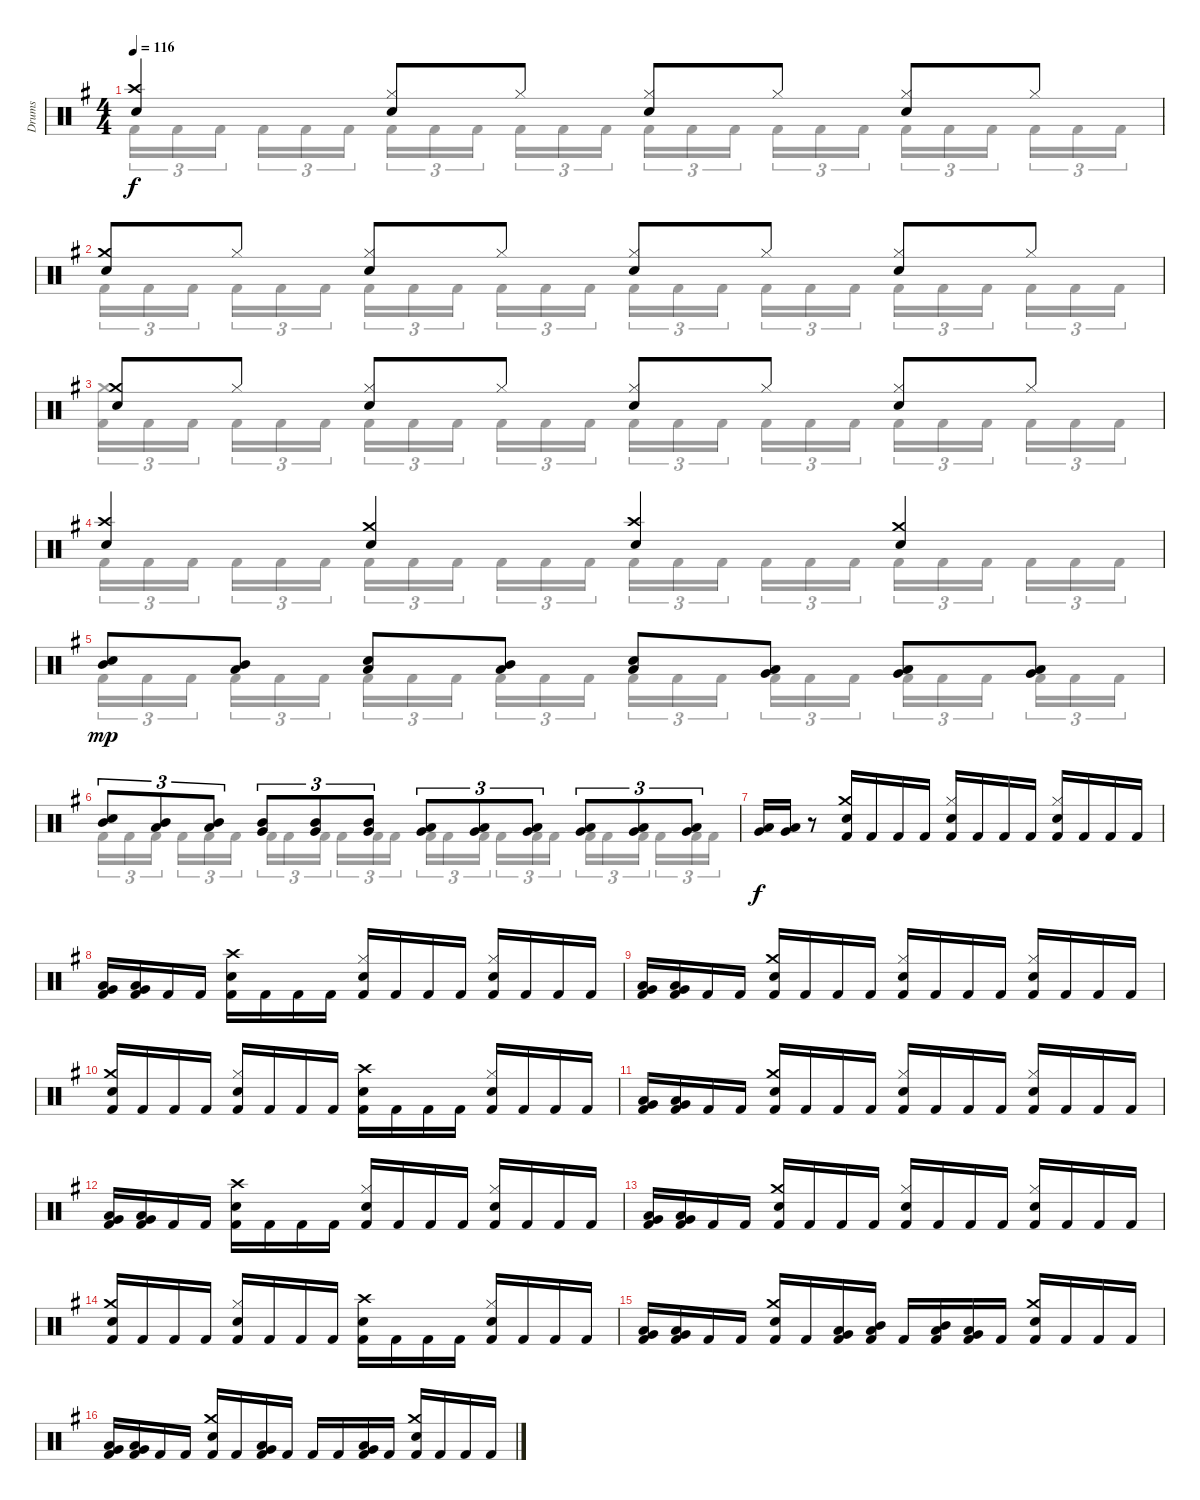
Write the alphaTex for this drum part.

\track ("Drums" "Drums") {instrument percussion}
\staff {score}
\articulation defaults
\voice
\ts (4 4)
\tempo 116
\clef neutral
\ks eminor
("Crash high (hit)" "Snare (hit) 2").4{dy f} ("Hi-Hat (closed)" "Snare (hit) 2").8 "Hi-Hat (closed)".8 ("Hi-Hat (closed)" "Snare (hit) 2").8 "Hi-Hat (closed)".8 ("Hi-Hat (closed)" "Snare (hit) 2").8 "Hi-Hat (closed)".8 |
("Crash medium (hit)" "Snare (hit) 2").8 "Hi-Hat (closed)".8 ("Hi-Hat (closed)" "Snare (hit) 2").8 "Hi-Hat (closed)".8 ("Hi-Hat (closed)" "Snare (hit) 2").8 "Hi-Hat (closed)".8 ("Hi-Hat (closed)" "Snare (hit) 2").8 "Hi-Hat (closed)".8 |
("Crash medium (hit)" "Snare (hit) 2").8 "Hi-Hat (closed)".8 ("Hi-Hat (closed)" "Snare (hit) 2").8 "Hi-Hat (closed)".8 ("Hi-Hat (closed)" "Snare (hit) 2").8 "Hi-Hat (closed)".8 ("Hi-Hat (closed)" "Snare (hit) 2").8 "Hi-Hat (closed)".8 |
("Crash high (hit)" "Snare (hit) 2").4 ("Crash medium (hit)" "Snare (hit) 2").4 ("Crash high (hit)" "Snare (hit) 2").4 ("Crash medium (hit)" "Snare (hit) 2").4 |
("Snare (hit) 2" "Mid Tom (hit)").8{dy mp} ("Mid Tom (hit)" "Low Tom (hit)").8 ("Snare (hit) 2" "Low Tom (hit)").8 ("Mid Tom (hit)" "Low Tom (hit)").8 ("Snare (hit) 2" "Low Tom (hit)").8 ("Low Tom (hit)" "Very Low Tom (hit)").8 ("Low Tom (hit)" "Very Low Tom (hit)").8 ("Very Low Tom (hit)" "Low Floor Tom (hit)").8 |
("Snare (hit) 2" "Mid Tom (hit)").8{tu (3 2)} ("Mid Tom (hit)" "Low Tom (hit)").8{tu (3 2)} ("Mid Tom (hit)" "Low Tom (hit)").8{tu (3 2)} ("Mid Tom (hit)" "Very Low Tom (hit)").8{tu (3 2)} ("Mid Tom (hit)" "Very Low Tom (hit)").8{tu (3 2)} ("Mid Tom (hit)" "Very Low Tom (hit)").8{tu (3 2)} ("Low Tom (hit)" "Very Low Tom (hit)").8{tu (3 2)} ("Low Tom (hit)" "Very Low Tom (hit)").8{tu (3 2)} ("Low Tom (hit)" "Very Low Tom (hit)").8{tu (3 2)} ("Very Low Tom (hit)" "Low Floor Tom (hit)").8{tu (3 2)} ("Very Low Tom (hit)" "Low Floor Tom (hit)").8{tu (3 2)} ("Very Low Tom (hit)" "Low Floor Tom (hit)").8{tu (3 2)} |
("Low Tom (hit)" "Very Low Tom (hit)").16{dy f} ("Low Tom (hit)" "Very Low Tom (hit)").16 r.8 ("Crash medium (hit)" "Snare (hit) 2" "Kick (hit) 2").16 "Kick (hit) 2".16 "Kick (hit) 2".16 "Kick (hit) 2".16 ("Hi-Hat (closed)" "Snare (hit) 2" "Kick (hit) 2").16 "Kick (hit) 2".16 "Kick (hit) 2".16 "Kick (hit) 2".16 ("Hi-Hat (closed)" "Snare (hit) 2" "Kick (hit) 2").16 "Kick (hit) 2".16 "Kick (hit) 2".16 "Kick (hit) 2".16 |
("Low Tom (hit)" "Very Low Tom (hit)" "Kick (hit) 2").16 ("Low Tom (hit)" "Very Low Tom (hit)" "Kick (hit) 2").16 "Kick (hit) 2".16 "Kick (hit) 2".16 ("Crash high (hit)" "Snare (hit) 2" "Kick (hit) 2").16 "Kick (hit) 2".16 "Kick (hit) 2".16 "Kick (hit) 2".16 ("Hi-Hat (closed)" "Snare (hit) 2" "Kick (hit) 2").16 "Kick (hit) 2".16 "Kick (hit) 2".16 "Kick (hit) 2".16 ("Hi-Hat (closed)" "Snare (hit) 2" "Kick (hit) 2").16 "Kick (hit) 2".16 "Kick (hit) 2".16 "Kick (hit) 2".16 |
("Low Tom (hit)" "Very Low Tom (hit)" "Kick (hit) 2").16 ("Low Tom (hit)" "Very Low Tom (hit)" "Kick (hit) 2").16 "Kick (hit) 2".16 "Kick (hit) 2".16 ("Crash medium (hit)" "Snare (hit) 2" "Kick (hit) 2").16 "Kick (hit) 2".16 "Kick (hit) 2".16 "Kick (hit) 2".16 ("Hi-Hat (closed)" "Snare (hit) 2" "Kick (hit) 2").16 "Kick (hit) 2".16 "Kick (hit) 2".16 "Kick (hit) 2".16 ("Hi-Hat (closed)" "Snare (hit) 2" "Kick (hit) 2").16 "Kick (hit) 2".16 "Kick (hit) 2".16 "Kick (hit) 2".16 |
("Crash medium (hit)" "Snare (hit) 2" "Kick (hit) 2").16 "Kick (hit) 2".16 "Kick (hit) 2".16 "Kick (hit) 2".16 ("Hi-Hat (closed)" "Snare (hit) 2" "Kick (hit) 2").16 "Kick (hit) 2".16 "Kick (hit) 2".16 "Kick (hit) 2".16 ("Crash high (hit)" "Snare (hit) 2" "Kick (hit) 2").16 "Kick (hit) 2".16 "Kick (hit) 2".16 "Kick (hit) 2".16 ("Hi-Hat (closed)" "Snare (hit) 2" "Kick (hit) 2").16 "Kick (hit) 2".16 "Kick (hit) 2".16 "Kick (hit) 2".16 |
("Low Tom (hit)" "Very Low Tom (hit)" "Kick (hit) 2").16 ("Low Tom (hit)" "Very Low Tom (hit)" "Kick (hit) 2").16 "Kick (hit) 2".16 "Kick (hit) 2".16 ("Crash medium (hit)" "Snare (hit) 2" "Kick (hit) 2").16 "Kick (hit) 2".16 "Kick (hit) 2".16 "Kick (hit) 2".16 ("Hi-Hat (closed)" "Snare (hit) 2" "Kick (hit) 2").16 "Kick (hit) 2".16 "Kick (hit) 2".16 "Kick (hit) 2".16 ("Hi-Hat (closed)" "Snare (hit) 2" "Kick (hit) 2").16 "Kick (hit) 2".16 "Kick (hit) 2".16 "Kick (hit) 2".16 |
("Low Tom (hit)" "Very Low Tom (hit)" "Kick (hit) 2").16 ("Low Tom (hit)" "Very Low Tom (hit)" "Kick (hit) 2").16 "Kick (hit) 2".16 "Kick (hit) 2".16 ("Crash high (hit)" "Snare (hit) 2" "Kick (hit) 2").16 "Kick (hit) 2".16 "Kick (hit) 2".16 "Kick (hit) 2".16 ("Hi-Hat (closed)" "Snare (hit) 2" "Kick (hit) 2").16 "Kick (hit) 2".16 "Kick (hit) 2".16 "Kick (hit) 2".16 ("Hi-Hat (closed)" "Snare (hit) 2" "Kick (hit) 2").16 "Kick (hit) 2".16 "Kick (hit) 2".16 "Kick (hit) 2".16 |
("Low Tom (hit)" "Very Low Tom (hit)" "Kick (hit) 2").16 ("Low Tom (hit)" "Very Low Tom (hit)" "Kick (hit) 2").16 "Kick (hit) 2".16 "Kick (hit) 2".16 ("Crash medium (hit)" "Snare (hit) 2" "Kick (hit) 2").16 "Kick (hit) 2".16 "Kick (hit) 2".16 "Kick (hit) 2".16 ("Hi-Hat (closed)" "Snare (hit) 2" "Kick (hit) 2").16 "Kick (hit) 2".16 "Kick (hit) 2".16 "Kick (hit) 2".16 ("Hi-Hat (closed)" "Snare (hit) 2" "Kick (hit) 2").16 "Kick (hit) 2".16 "Kick (hit) 2".16 "Kick (hit) 2".16 |
("Crash medium (hit)" "Snare (hit) 2" "Kick (hit) 2").16 "Kick (hit) 2".16 "Kick (hit) 2".16 "Kick (hit) 2".16 ("Hi-Hat (closed)" "Snare (hit) 2" "Kick (hit) 2").16 "Kick (hit) 2".16 "Kick (hit) 2".16 "Kick (hit) 2".16 ("Crash high (hit)" "Snare (hit) 2" "Kick (hit) 2").16 "Kick (hit) 2".16 "Kick (hit) 2".16 "Kick (hit) 2".16 ("Hi-Hat (closed)" "Snare (hit) 2" "Kick (hit) 2").16 "Kick (hit) 2".16 "Kick (hit) 2".16 "Kick (hit) 2".16 |
("Low Tom (hit)" "Very Low Tom (hit)" "Kick (hit) 2").16 ("Low Tom (hit)" "Very Low Tom (hit)" "Kick (hit) 2").16 "Kick (hit) 2".16 "Kick (hit) 2".16 ("Crash medium (hit)" "Snare (hit) 2" "Kick (hit) 2").16 "Kick (hit) 2".16 ("Low Tom (hit)" "Very Low Tom (hit)" "Kick (hit) 2").16 ("Mid Tom (hit)" "Low Floor Tom (hit)" "Kick (hit) 2").16 "Kick (hit) 2".16 ("Mid Tom (hit)" "Low Floor Tom (hit)" "Kick (hit) 2").16 ("Low Tom (hit)" "Very Low Tom (hit)" "Kick (hit) 2").16 "Kick (hit) 2".16 ("Crash medium (hit)" "Snare (hit) 2" "Kick (hit) 2").16 "Kick (hit) 2".16 "Kick (hit) 2".16 "Kick (hit) 2".16 |
("Low Tom (hit)" "Very Low Tom (hit)" "Kick (hit) 2").16 ("Low Tom (hit)" "Very Low Tom (hit)" "Kick (hit) 2").16 "Kick (hit) 2".16 "Kick (hit) 2".16 ("Crash medium (hit)" "Snare (hit) 2" "Kick (hit) 2").16 "Kick (hit) 2".16 ("Low Tom (hit)" "Very Low Tom (hit)" "Kick (hit) 2").16 "Kick (hit) 2".16 "Kick (hit) 2".16 "Kick (hit) 2".16 ("Very Low Tom (hit)" "Low Floor Tom (hit)" "Kick (hit) 2").16 "Kick (hit) 2".16 ("Crash medium (hit)" "Snare (hit) 2" "Kick (hit) 2").16 "Kick (hit) 2".16 "Kick (hit) 2".16 "Kick (hit) 2".16
\voice
\clef neutral
\ottava regular
\simile none
\ks eminor "Kick (hit) 2".16{tu (3 2) dy f} "Kick (hit) 2".16{tu (3 2)} "Kick (hit) 2".16{tu (3 2) beam splitsecondary} "Kick (hit) 2".16{tu (3 2)} "Kick (hit) 2".16{tu (3 2)} "Kick (hit) 2".16{tu (3 2)} "Kick (hit) 2".16{tu (3 2)} "Kick (hit) 2".16{tu (3 2)} "Kick (hit) 2".16{tu (3 2) beam splitsecondary} "Kick (hit) 2".16{tu (3 2)} "Kick (hit) 2".16{tu (3 2)} "Kick (hit) 2".16{tu (3 2)} "Kick (hit) 2".16{tu (3 2)} "Kick (hit) 2".16{tu (3 2)} "Kick (hit) 2".16{tu (3 2) beam splitsecondary} "Kick (hit) 2".16{tu (3 2)} "Kick (hit) 2".16{tu (3 2)} "Kick (hit) 2".16{tu (3 2)} "Kick (hit) 2".16{tu (3 2)} "Kick (hit) 2".16{tu (3 2)} "Kick (hit) 2".16{tu (3 2) beam splitsecondary} "Kick (hit) 2".16{tu (3 2)} "Kick (hit) 2".16{tu (3 2)} "Kick (hit) 2".16{tu (3 2)}
|
"Kick (hit) 2".16{tu (3 2)} "Kick (hit) 2".16{tu (3 2)} "Kick (hit) 2".16{tu (3 2) beam splitsecondary} "Kick (hit) 2".16{tu (3 2)} "Kick (hit) 2".16{tu (3 2)} "Kick (hit) 2".16{tu (3 2)} "Kick (hit) 2".16{tu (3 2)} "Kick (hit) 2".16{tu (3 2)} "Kick (hit) 2".16{tu (3 2) beam splitsecondary} "Kick (hit) 2".16{tu (3 2)} "Kick (hit) 2".16{tu (3 2)} "Kick (hit) 2".16{tu (3 2)} "Kick (hit) 2".16{tu (3 2)} "Kick (hit) 2".16{tu (3 2)} "Kick (hit) 2".16{tu (3 2) beam splitsecondary} "Kick (hit) 2".16{tu (3 2)} "Kick (hit) 2".16{tu (3 2)} "Kick (hit) 2".16{tu (3 2)} "Kick (hit) 2".16{tu (3 2)} "Kick (hit) 2".16{tu (3 2)} "Kick (hit) 2".16{tu (3 2) beam splitsecondary} "Kick (hit) 2".16{tu (3 2)} "Kick (hit) 2".16{tu (3 2)} "Kick (hit) 2".16{tu (3 2)} |
("Crash medium (hit)" "Kick (hit) 2").16{tu (3 2)} "Kick (hit) 2".16{tu (3 2)} "Kick (hit) 2".16{tu (3 2) beam splitsecondary} "Kick (hit) 2".16{tu (3 2)} "Kick (hit) 2".16{tu (3 2)} "Kick (hit) 2".16{tu (3 2)} "Kick (hit) 2".16{tu (3 2)} "Kick (hit) 2".16{tu (3 2)} "Kick (hit) 2".16{tu (3 2) beam splitsecondary} "Kick (hit) 2".16{tu (3 2)} "Kick (hit) 2".16{tu (3 2)} "Kick (hit) 2".16{tu (3 2)} "Kick (hit) 2".16{tu (3 2)} "Kick (hit) 2".16{tu (3 2)} "Kick (hit) 2".16{tu (3 2) beam splitsecondary} "Kick (hit) 2".16{tu (3 2)} "Kick (hit) 2".16{tu (3 2)} "Kick (hit) 2".16{tu (3 2)} "Kick (hit) 2".16{tu (3 2)} "Kick (hit) 2".16{tu (3 2)} "Kick (hit) 2".16{tu (3 2) beam splitsecondary} "Kick (hit) 2".16{tu (3 2)} "Kick (hit) 2".16{tu (3 2)} "Kick (hit) 2".16{tu (3 2)} |
"Kick (hit) 2".16{tu (3 2)} "Kick (hit) 2".16{tu (3 2)} "Kick (hit) 2".16{tu (3 2) beam splitsecondary} "Kick (hit) 2".16{tu (3 2)} "Kick (hit) 2".16{tu (3 2)} "Kick (hit) 2".16{tu (3 2)} "Kick (hit) 2".16{tu (3 2)} "Kick (hit) 2".16{tu (3 2)} "Kick (hit) 2".16{tu (3 2) beam splitsecondary} "Kick (hit) 2".16{tu (3 2)} "Kick (hit) 2".16{tu (3 2)} "Kick (hit) 2".16{tu (3 2)} "Kick (hit) 2".16{tu (3 2)} "Kick (hit) 2".16{tu (3 2)} "Kick (hit) 2".16{tu (3 2) beam splitsecondary} "Kick (hit) 2".16{tu (3 2)} "Kick (hit) 2".16{tu (3 2)} "Kick (hit) 2".16{tu (3 2)} "Kick (hit) 2".16{tu (3 2)} "Kick (hit) 2".16{tu (3 2)} "Kick (hit) 2".16{tu (3 2) beam splitsecondary} "Kick (hit) 2".16{tu (3 2)} "Kick (hit) 2".16{tu (3 2)} "Kick (hit) 2".16{tu (3 2)} |
"Kick (hit) 2".16{tu (3 2)} "Kick (hit) 2".16{tu (3 2)} "Kick (hit) 2".16{tu (3 2) beam splitsecondary} "Kick (hit) 2".16{tu (3 2)} "Kick (hit) 2".16{tu (3 2)} "Kick (hit) 2".16{tu (3 2)} "Kick (hit) 2".16{tu (3 2)} "Kick (hit) 2".16{tu (3 2)} "Kick (hit) 2".16{tu (3 2) beam splitsecondary} "Kick (hit) 2".16{tu (3 2)} "Kick (hit) 2".16{tu (3 2)} "Kick (hit) 2".16{tu (3 2)} "Kick (hit) 2".16{tu (3 2)} "Kick (hit) 2".16{tu (3 2)} "Kick (hit) 2".16{tu (3 2) beam splitsecondary} "Kick (hit) 2".16{tu (3 2)} "Kick (hit) 2".16{tu (3 2)} "Kick (hit) 2".16{tu (3 2)} "Kick (hit) 2".16{tu (3 2)} "Kick (hit) 2".16{tu (3 2)} "Kick (hit) 2".16{tu (3 2) beam splitsecondary} "Kick (hit) 2".16{tu (3 2)} "Kick (hit) 2".16{tu (3 2)} "Kick (hit) 2".16{tu (3 2)} |
"Kick (hit) 2".16{tu (3 2)} "Kick (hit) 2".16{tu (3 2)} "Kick (hit) 2".16{tu (3 2) beam splitsecondary} "Kick (hit) 2".16{tu (3 2)} "Kick (hit) 2".16{tu (3 2)} "Kick (hit) 2".16{tu (3 2)} "Kick (hit) 2".16{tu (3 2)} "Kick (hit) 2".16{tu (3 2)} "Kick (hit) 2".16{tu (3 2) beam splitsecondary} "Kick (hit) 2".16{tu (3 2)} "Kick (hit) 2".16{tu (3 2)} "Kick (hit) 2".16{tu (3 2)} "Kick (hit) 2".16{tu (3 2)} "Kick (hit) 2".16{tu (3 2)} "Kick (hit) 2".16{tu (3 2) beam splitsecondary} "Kick (hit) 2".16{tu (3 2)} "Kick (hit) 2".16{tu (3 2)} "Kick (hit) 2".16{tu (3 2)} "Kick (hit) 2".16{tu (3 2)} "Kick (hit) 2".16{tu (3 2)} "Kick (hit) 2".16{tu (3 2) beam splitsecondary} "Kick (hit) 2".16{tu (3 2)} "Kick (hit) 2".16{tu (3 2)} "Kick (hit) 2".16{tu (3 2)} |
|
|
|
|
|
|
|
|
|
